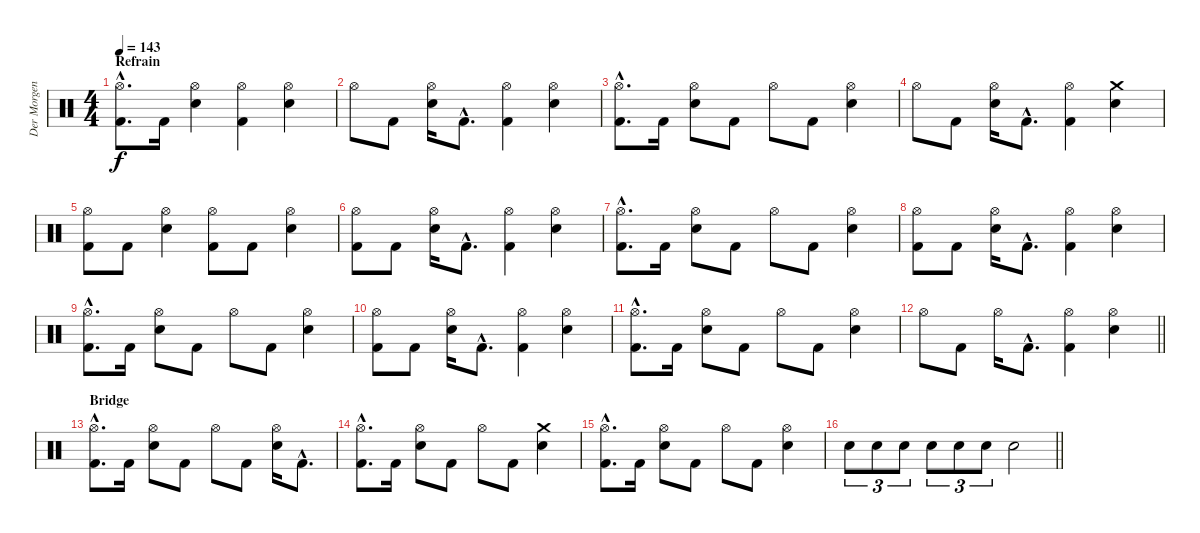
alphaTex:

\track ("Der Morgenstern" "Der Morgen") {instrument percussion}
\staff {score}
\articulation defaults
\ts (4 4)
\section ("" "Refrain")
\tempo 143
\clef neutral
\ks c
("Hi-Hat (open)"{hac} "Kick (hit) 2"{hac}).8{d dy f} "Kick (hit) 2".16 ("Hi-Hat (open)" "Electric Snare (hit)").4 ("Hi-Hat (open)" "Kick (hit) 2").4 ("Hi-Hat (open)" "Electric Snare (hit)").4 |
"Hi-Hat (open)".8 "Kick (hit) 2".8 ("Hi-Hat (open)" "Electric Snare (hit)").16 "Kick (hit) 2"{hac}.8{d} ("Hi-Hat (open)" "Kick (hit) 2").4 ("Hi-Hat (open)" "Electric Snare (hit)").4 |
("Hi-Hat (open)"{hac} "Kick (hit) 2"{hac}).8{d} "Kick (hit) 2".16 ("Hi-Hat (open)" "Electric Snare (hit)").8 "Kick (hit) 2".8 "Hi-Hat (open)".8 "Kick (hit) 2".8 ("Hi-Hat (open)" "Electric Snare (hit)").4 |
"Hi-Hat (open)".8 "Kick (hit) 2".8 ("Hi-Hat (open)" "Electric Snare (hit)").16 "Kick (hit) 2"{hac}.8{d} ("Hi-Hat (open)" "Kick (hit) 2").4 ("Crash medium (hit)" "Electric Snare (hit)").4 |
("Hi-Hat (open)" "Kick (hit) 2").8 "Kick (hit) 2".8 ("Hi-Hat (open)" "Electric Snare (hit)").4 ("Hi-Hat (open)" "Kick (hit) 2").8 "Kick (hit) 2".8 ("Hi-Hat (open)" "Electric Snare (hit)").4 |
("Hi-Hat (open)" "Kick (hit) 2").8 "Kick (hit) 2".8 ("Hi-Hat (open)" "Electric Snare (hit)").16 "Kick (hit) 2"{hac}.8{d} ("Hi-Hat (open)" "Kick (hit) 2").4 ("Hi-Hat (open)" "Electric Snare (hit)").4 |
("Hi-Hat (open)"{hac} "Kick (hit) 2"{hac}).8{d} "Kick (hit) 2".16 ("Hi-Hat (open)" "Electric Snare (hit)").8 "Kick (hit) 2".8 "Hi-Hat (open)".8 "Kick (hit) 2".8 ("Hi-Hat (open)" "Electric Snare (hit)").4 |
("Hi-Hat (open)" "Kick (hit) 2").8 "Kick (hit) 2".8 ("Hi-Hat (open)" "Electric Snare (hit)").16 "Kick (hit) 2"{hac}.8{d} ("Hi-Hat (open)" "Kick (hit) 2").4 ("Hi-Hat (open)" "Electric Snare (hit)").4 |
("Hi-Hat (open)"{hac} "Kick (hit) 2"{hac}).8{d} "Kick (hit) 2".16 ("Hi-Hat (open)" "Electric Snare (hit)").8 "Kick (hit) 2".8 "Hi-Hat (open)".8 "Kick (hit) 2".8 ("Hi-Hat (open)" "Electric Snare (hit)").4 |
("Hi-Hat (open)" "Kick (hit) 2").8 "Kick (hit) 2".8 ("Hi-Hat (open)" "Electric Snare (hit)").16 "Kick (hit) 2"{hac}.8{d} ("Hi-Hat (open)" "Kick (hit) 2").4 ("Hi-Hat (open)" "Electric Snare (hit)").4 |
("Hi-Hat (open)"{hac} "Kick (hit) 2"{hac}).8{d} "Kick (hit) 2".16 ("Hi-Hat (open)" "Electric Snare (hit)").8 "Kick (hit) 2".8 "Hi-Hat (open)".8 "Kick (hit) 2".8 ("Hi-Hat (open)" "Electric Snare (hit)").4 |
\barLineRight lightlight "Hi-Hat (open)".8 "Kick (hit) 2".8 "Hi-Hat (open)".16 "Kick (hit) 2"{hac}.8{d}
("Hi-Hat (open)" "Kick (hit) 2").4 ("Hi-Hat (open)" "Electric Snare (hit)").4 |
\section ("" "Bridge")
("Hi-Hat (open)"{hac} "Kick (hit) 2"{hac}).8{d} "Kick (hit) 2".16 ("Hi-Hat (open)" "Electric Snare (hit)").8 "Kick (hit) 2".8 "Hi-Hat (open)".8 "Kick (hit) 2".8 ("Hi-Hat (open)" "Electric Snare (hit)").16 "Kick (hit) 2"{hac}.8{d} |
("Hi-Hat (open)"{hac} "Kick (hit) 2"{hac}).8{d} "Kick (hit) 2".16 ("Hi-Hat (open)" "Electric Snare (hit)").8 "Kick (hit) 2".8 "Hi-Hat (open)".8 "Kick (hit) 2".8 ("Crash medium (hit)" "Electric Snare (hit)").4 |
("Hi-Hat (open)"{hac} "Kick (hit) 2"{hac}).8{d} "Kick (hit) 2".16 ("Hi-Hat (open)" "Electric Snare (hit)").8 "Kick (hit) 2".8 "Hi-Hat (open)".8 "Kick (hit) 2".8 ("Hi-Hat (open)" "Electric Snare (hit)").4 |
\barLineRight lightlight "Electric Snare (hit)".8{tu (3 2)} "Electric Snare (hit)".8{tu (3 2)} "Electric Snare (hit)".8{tu (3 2)} "Electric Snare (hit)".8{tu (3 2)} "Electric Snare (hit)".8{tu (3 2)} "Electric Snare (hit)".8{tu (3 2)} "Electric Snare (hit)".2
